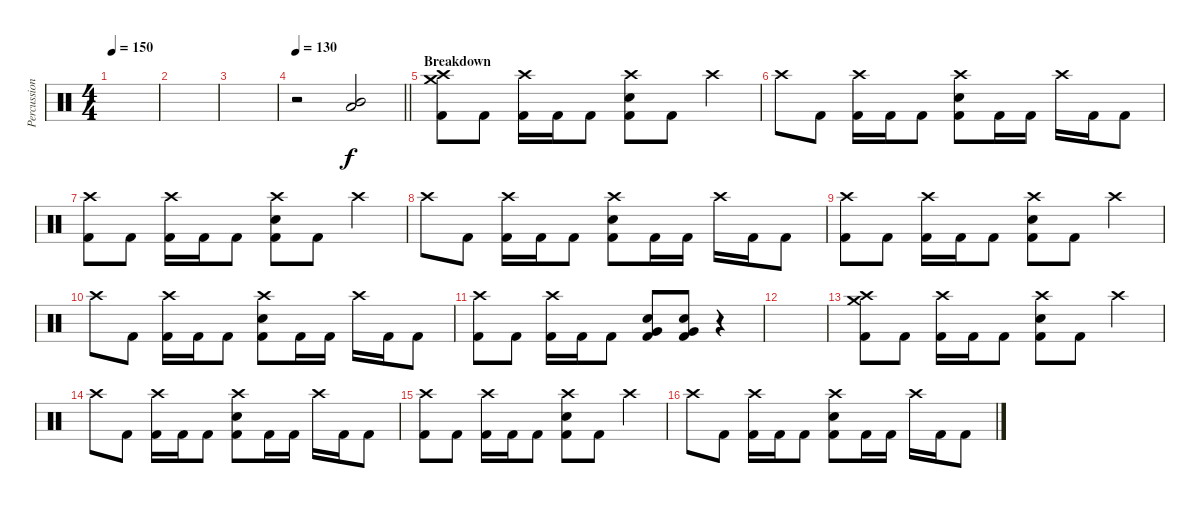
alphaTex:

\track ("Percussion" "Percussion") {instrument percussion}
\staff {score}
\articulation defaults
\ts (4 4)
\tempo 150
\clef neutral
\ks c
|
|
|
\tempo 130
\barLineRight lightlight
r.2 ("Low Tom (hit)" "Mid Tom (hit)").2 |
\section ("" "Breakdown")
("Crash high (hit)" "Crash medium (hit)" "Kick (hit) 2").8 "Kick (hit) 2".8 ("Crash high (hit)" "Kick (hit) 2").16 "Kick (hit) 2".16 "Kick (hit) 2".8 ("Crash high (hit)" "Electric Snare (hit)" "Kick (hit) 2").8 "Kick (hit) 2".8 "Crash high (hit)".4 |
"Crash high (hit)".8 "Kick (hit) 2".8 ("Crash high (hit)" "Kick (hit) 2").16 "Kick (hit) 2".16 "Kick (hit) 2".8 ("Crash high (hit)" "Electric Snare (hit)" "Kick (hit) 2").8 "Kick (hit) 2".16 "Kick (hit) 2".16 "Crash high (hit)".16 "Kick (hit) 2".16 "Kick (hit) 2".8 |
("Crash high (hit)" "Kick (hit) 2").8 "Kick (hit) 2".8 ("Crash high (hit)" "Kick (hit) 2").16 "Kick (hit) 2".16 "Kick (hit) 2".8 ("Crash high (hit)" "Electric Snare (hit)" "Kick (hit) 2").8 "Kick (hit) 2".8 "Crash high (hit)".4 |
"Crash high (hit)".8 "Kick (hit) 2".8 ("Crash high (hit)" "Kick (hit) 2").16 "Kick (hit) 2".16 "Kick (hit) 2".8 ("Crash high (hit)" "Electric Snare (hit)" "Kick (hit) 2").8 "Kick (hit) 2".16 "Kick (hit) 2".16 "Crash high (hit)".16 "Kick (hit) 2".16 "Kick (hit) 2".8 |
("Crash high (hit)" "Kick (hit) 2").8 "Kick (hit) 2".8 ("Crash high (hit)" "Kick (hit) 2").16 "Kick (hit) 2".16 "Kick (hit) 2".8 ("Crash high (hit)" "Electric Snare (hit)" "Kick (hit) 2").8 "Kick (hit) 2".8 "Crash high (hit)".4 |
"Crash high (hit)".8 "Kick (hit) 2".8 ("Crash high (hit)" "Kick (hit) 2").16 "Kick (hit) 2".16 "Kick (hit) 2".8 ("Crash high (hit)" "Electric Snare (hit)" "Kick (hit) 2").8 "Kick (hit) 2".16 "Kick (hit) 2".16 "Crash high (hit)".16 "Kick (hit) 2".16 "Kick (hit) 2".8 |
("Crash high (hit)" "Kick (hit) 2").8 "Kick (hit) 2".8 ("Crash high (hit)" "Kick (hit) 2").16 "Kick (hit) 2".16 "Kick (hit) 2".8 ("Electric Snare (hit)" "Very Low Tom (hit)" "Kick (hit) 2").8 ("Electric Snare (hit)" "Very Low Tom (hit)" "Kick (hit) 2").8 r.4 |
|
("Crash high (hit)" "Crash medium (hit)" "Kick (hit) 2").8 "Kick (hit) 2".8 ("Crash high (hit)" "Kick (hit) 2").16 "Kick (hit) 2".16 "Kick (hit) 2".8 ("Crash high (hit)" "Electric Snare (hit)" "Kick (hit) 2").8 "Kick (hit) 2".8 "Crash high (hit)".4 |
"Crash high (hit)".8 "Kick (hit) 2".8 ("Crash high (hit)" "Kick (hit) 2").16 "Kick (hit) 2".16 "Kick (hit) 2".8 ("Crash high (hit)" "Electric Snare (hit)" "Kick (hit) 2").8 "Kick (hit) 2".16 "Kick (hit) 2".16 "Crash high (hit)".16 "Kick (hit) 2".16 "Kick (hit) 2".8 |
("Crash high (hit)" "Kick (hit) 2").8 "Kick (hit) 2".8 ("Crash high (hit)" "Kick (hit) 2").16 "Kick (hit) 2".16 "Kick (hit) 2".8 ("Crash high (hit)" "Electric Snare (hit)" "Kick (hit) 2").8 "Kick (hit) 2".8 "Crash high (hit)".4 |
"Crash high (hit)".8 "Kick (hit) 2".8 ("Crash high (hit)" "Kick (hit) 2").16 "Kick (hit) 2".16 "Kick (hit) 2".8 ("Crash high (hit)" "Electric Snare (hit)" "Kick (hit) 2").8 "Kick (hit) 2".16 "Kick (hit) 2".16 "Crash high (hit)".16 "Kick (hit) 2".16 "Kick (hit) 2".8
